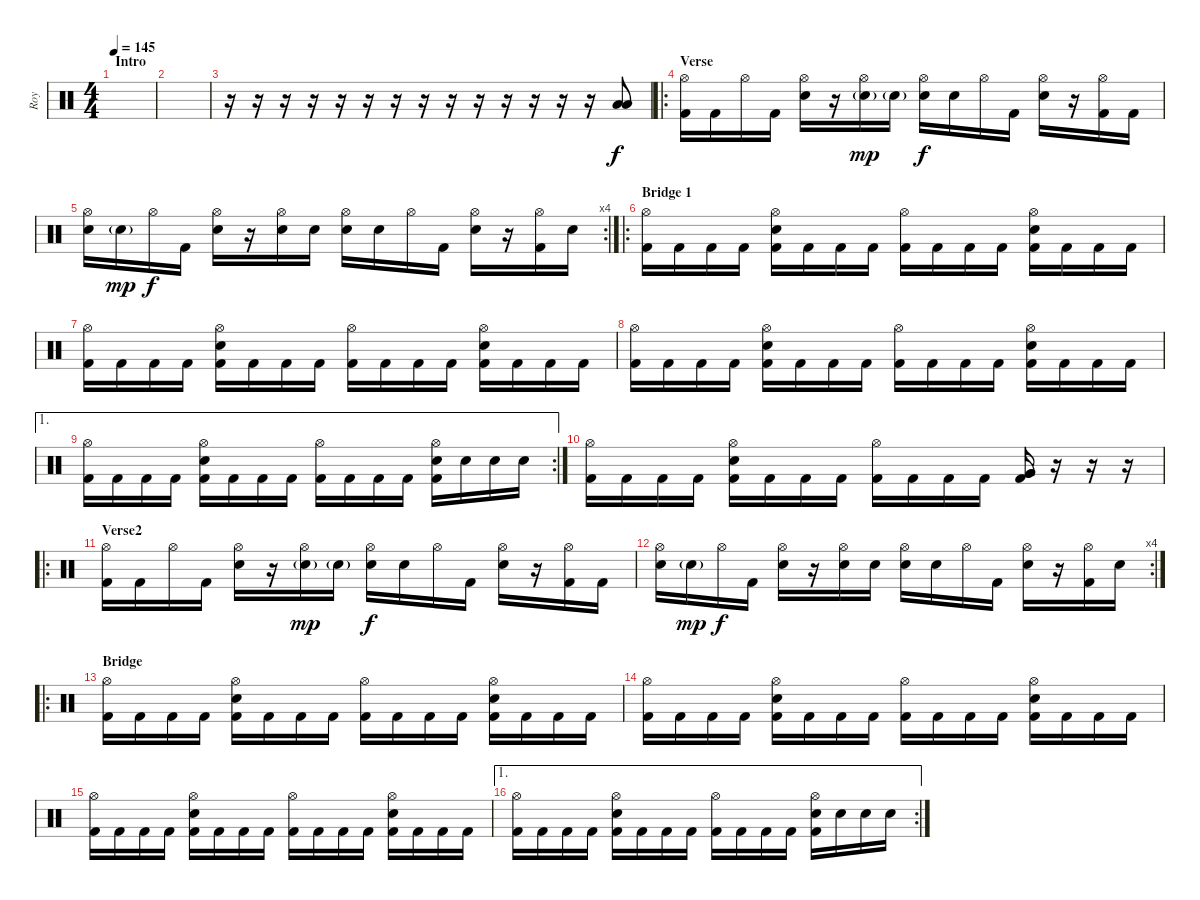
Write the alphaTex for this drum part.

\track ("Roy" "Roy") {instrument percussion}
\staff {score}
\articulation defaults
\ts (4 4)
\section ("" "Intro")
\tempo 145
\clef neutral
\ks c
|
|
r.16 r.16 r.16 r.16 r.16 r.16 r.16 r.16 r.16 r.16 r.16 r.16 r.16 r.16 ("Low Tom (hit)" "Low Tom (hit)").8 |
\ro
\section ("" "Verse")
("Hi-Hat (open)" "Kick (hit) 2").16 "Kick (hit) 2".16 "Hi-Hat (open)".16 "Kick (hit) 2".16 ("Hi-Hat (open)" "Electric Snare (hit)").16 r.16 ("Hi-Hat (open)" "Electric Snare (hit)"{g}).16{dy mp} "Electric Snare (hit)"{g}.16 ("Hi-Hat (open)" "Electric Snare (hit)").16{dy f} "Electric Snare (hit)".16 "Hi-Hat (open)".16 "Kick (hit) 2".16 ("Hi-Hat (open)" "Electric Snare (hit)").16 r.16 ("Hi-Hat (open)" "Kick (hit) 2").16 "Kick (hit) 2".16 |
\rc 4
("Hi-Hat (open)" "Electric Snare (hit)").16 "Electric Snare (hit)"{g}.16{dy mp} "Hi-Hat (open)".16{dy f} "Kick (hit) 2".16 ("Hi-Hat (open)" "Electric Snare (hit)").16 r.16 ("Hi-Hat (open)" "Electric Snare (hit)").16 "Electric Snare (hit)".16 ("Hi-Hat (open)" "Electric Snare (hit)").16 "Electric Snare (hit)".16 "Hi-Hat (open)".16 "Kick (hit) 2".16 ("Hi-Hat (open)" "Electric Snare (hit)").16 r.16 ("Hi-Hat (open)" "Kick (hit) 2").16 "Electric Snare (hit)".16 |
\ro
\section ("" "Bridge 1")
("Hi-Hat (open)" "Kick (hit) 2").16 "Kick (hit) 2".16 "Kick (hit) 2".16 "Kick (hit) 2".16 ("Hi-Hat (open)" "Electric Snare (hit)" "Kick (hit) 2").16 "Kick (hit) 2".16 "Kick (hit) 2".16 "Kick (hit) 2".16 ("Hi-Hat (open)" "Kick (hit) 2").16 "Kick (hit) 2".16 "Kick (hit) 2".16 "Kick (hit) 2".16 ("Hi-Hat (open)" "Electric Snare (hit)" "Kick (hit) 2").16 "Kick (hit) 2".16 "Kick (hit) 2".16 "Kick (hit) 2".16 |
("Hi-Hat (open)" "Kick (hit) 2").16 "Kick (hit) 2".16 "Kick (hit) 2".16 "Kick (hit) 2".16 ("Hi-Hat (open)" "Electric Snare (hit)" "Kick (hit) 2").16 "Kick (hit) 2".16 "Kick (hit) 2".16 "Kick (hit) 2".16 ("Hi-Hat (open)" "Kick (hit) 2").16 "Kick (hit) 2".16 "Kick (hit) 2".16 "Kick (hit) 2".16 ("Hi-Hat (open)" "Electric Snare (hit)" "Kick (hit) 2").16 "Kick (hit) 2".16 "Kick (hit) 2".16 "Kick (hit) 2".16 |
("Hi-Hat (open)" "Kick (hit) 2").16 "Kick (hit) 2".16 "Kick (hit) 2".16 "Kick (hit) 2".16 ("Hi-Hat (open)" "Electric Snare (hit)" "Kick (hit) 2").16 "Kick (hit) 2".16 "Kick (hit) 2".16 "Kick (hit) 2".16 ("Hi-Hat (open)" "Kick (hit) 2").16 "Kick (hit) 2".16 "Kick (hit) 2".16 "Kick (hit) 2".16 ("Hi-Hat (open)" "Electric Snare (hit)" "Kick (hit) 2").16 "Kick (hit) 2".16 "Kick (hit) 2".16 "Kick (hit) 2".16 |
\ae 1
\rc 2
("Hi-Hat (open)" "Kick (hit) 2").16 "Kick (hit) 2".16 "Kick (hit) 2".16 "Kick (hit) 2".16 ("Hi-Hat (open)" "Electric Snare (hit)" "Kick (hit) 2").16 "Kick (hit) 2".16 "Kick (hit) 2".16 "Kick (hit) 2".16 ("Hi-Hat (open)" "Kick (hit) 2").16 "Kick (hit) 2".16 "Kick (hit) 2".16 "Kick (hit) 2".16 ("Hi-Hat (open)" "Electric Snare (hit)" "Kick (hit) 2").16 "Electric Snare (hit)".16 "Electric Snare (hit)".16 "Electric Snare (hit)".16 |
("Hi-Hat (open)" "Kick (hit) 2").16 "Kick (hit) 2".16 "Kick (hit) 2".16 "Kick (hit) 2".16 ("Hi-Hat (open)" "Electric Snare (hit)" "Kick (hit) 2").16 "Kick (hit) 2".16 "Kick (hit) 2".16 "Kick (hit) 2".16 ("Hi-Hat (open)" "Kick (hit) 2").16 "Kick (hit) 2".16 "Kick (hit) 2".16 "Kick (hit) 2".16 ("Very Low Tom (hit)" "Very Low Tom (hit)" "Kick (hit) 2").16 r.16 r.16 r.16 |
\ro
\section ("" "Verse2")
("Hi-Hat (open)" "Kick (hit) 2").16 "Kick (hit) 2".16 "Hi-Hat (open)".16 "Kick (hit) 2".16 ("Hi-Hat (open)" "Electric Snare (hit)").16 r.16 ("Hi-Hat (open)" "Electric Snare (hit)"{g}).16{dy mp} "Electric Snare (hit)"{g}.16 ("Hi-Hat (open)" "Electric Snare (hit)").16{dy f} "Electric Snare (hit)".16 "Hi-Hat (open)".16 "Kick (hit) 2".16 ("Hi-Hat (open)" "Electric Snare (hit)").16 r.16 ("Hi-Hat (open)" "Kick (hit) 2").16 "Kick (hit) 2".16 |
\rc 4
("Hi-Hat (open)" "Electric Snare (hit)").16 "Electric Snare (hit)"{g}.16{dy mp} "Hi-Hat (open)".16{dy f} "Kick (hit) 2".16 ("Hi-Hat (open)" "Electric Snare (hit)").16 r.16 ("Hi-Hat (open)" "Electric Snare (hit)").16 "Electric Snare (hit)".16 ("Hi-Hat (open)" "Electric Snare (hit)").16 "Electric Snare (hit)".16 "Hi-Hat (open)".16 "Kick (hit) 2".16 ("Hi-Hat (open)" "Electric Snare (hit)").16 r.16 ("Hi-Hat (open)" "Kick (hit) 2").16 "Electric Snare (hit)".16 |
\ro
\section ("" "Bridge")
("Hi-Hat (open)" "Kick (hit) 2").16 "Kick (hit) 2".16 "Kick (hit) 2".16 "Kick (hit) 2".16 ("Hi-Hat (open)" "Electric Snare (hit)" "Kick (hit) 2").16 "Kick (hit) 2".16 "Kick (hit) 2".16 "Kick (hit) 2".16 ("Hi-Hat (open)" "Kick (hit) 2").16 "Kick (hit) 2".16 "Kick (hit) 2".16 "Kick (hit) 2".16 ("Hi-Hat (open)" "Electric Snare (hit)" "Kick (hit) 2").16 "Kick (hit) 2".16 "Kick (hit) 2".16 "Kick (hit) 2".16 |
("Hi-Hat (open)" "Kick (hit) 2").16 "Kick (hit) 2".16 "Kick (hit) 2".16 "Kick (hit) 2".16 ("Hi-Hat (open)" "Electric Snare (hit)" "Kick (hit) 2").16 "Kick (hit) 2".16 "Kick (hit) 2".16 "Kick (hit) 2".16 ("Hi-Hat (open)" "Kick (hit) 2").16 "Kick (hit) 2".16 "Kick (hit) 2".16 "Kick (hit) 2".16 ("Hi-Hat (open)" "Electric Snare (hit)" "Kick (hit) 2").16 "Kick (hit) 2".16 "Kick (hit) 2".16 "Kick (hit) 2".16 |
("Hi-Hat (open)" "Kick (hit) 2").16 "Kick (hit) 2".16 "Kick (hit) 2".16 "Kick (hit) 2".16 ("Hi-Hat (open)" "Electric Snare (hit)" "Kick (hit) 2").16 "Kick (hit) 2".16 "Kick (hit) 2".16 "Kick (hit) 2".16 ("Hi-Hat (open)" "Kick (hit) 2").16 "Kick (hit) 2".16 "Kick (hit) 2".16 "Kick (hit) 2".16 ("Hi-Hat (open)" "Electric Snare (hit)" "Kick (hit) 2").16 "Kick (hit) 2".16 "Kick (hit) 2".16 "Kick (hit) 2".16 |
\ae 1
\rc 2
("Hi-Hat (open)" "Kick (hit) 2").16 "Kick (hit) 2".16 "Kick (hit) 2".16 "Kick (hit) 2".16 ("Hi-Hat (open)" "Electric Snare (hit)" "Kick (hit) 2").16 "Kick (hit) 2".16 "Kick (hit) 2".16 "Kick (hit) 2".16 ("Hi-Hat (open)" "Kick (hit) 2").16 "Kick (hit) 2".16 "Kick (hit) 2".16 "Kick (hit) 2".16 ("Hi-Hat (open)" "Electric Snare (hit)" "Kick (hit) 2").16 "Electric Snare (hit)".16 "Electric Snare (hit)".16 "Electric Snare (hit)".16
